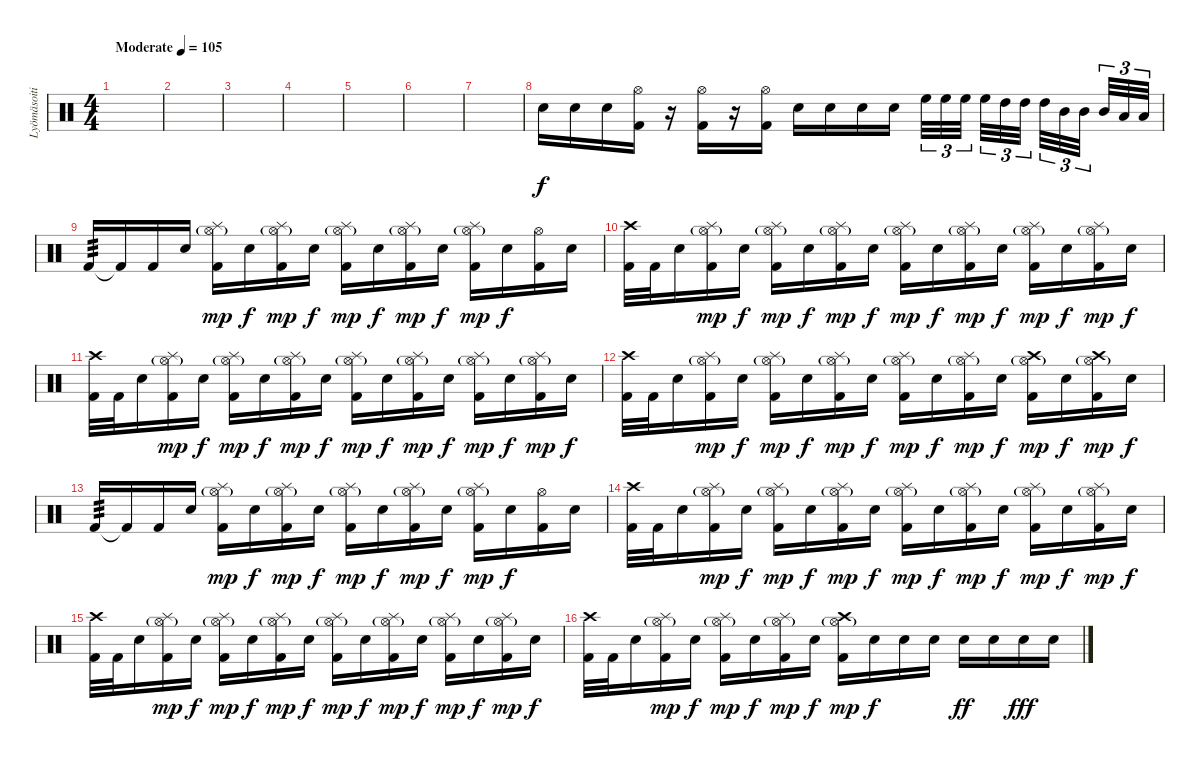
\track ("Lyömäsoitin" "Lyömäsoiti") {instrument percussion}
\staff {score}
\articulation defaults
\ts (4 4)
\tempo (105 "Moderate")
\clef neutral
\ks c
|
|
|
|
|
|
|
"Electric Snare (hit)".16 "Electric Snare (hit)".16 "Electric Snare (hit)".16 ("Hi-Hat (open)" "Kick (hit) 2").16 r.16 ("Hi-Hat (open)" "Kick (hit) 2").16 r.16 ("Hi-Hat (open)" "Kick (hit) 2").16 "Electric Snare (hit)".16 "Electric Snare (hit)".16 "Electric Snare (hit)".16 "Electric Snare (hit)".16 "High Floor Tom (hit)".32{tu (3 2)} "High Floor Tom (hit)".32{tu (3 2)} "High Floor Tom (hit)".32{tu (3 2) beam splitsecondary} "High Floor Tom (hit)".32{tu (3 2)} "High Tom (hit)".32{tu (3 2)} "High Tom (hit)".32{tu (3 2) beam splitsecondary} "High Tom (hit)".32{tu (3 2)} "Mid Tom (hit)".32{tu (3 2)} "Mid Tom (hit)".32{tu (3 2) beam splitsecondary} "Mid Tom (hit)".32{tu (3 2)} "Low Tom (hit)".32{tu (3 2)} "Low Tom (hit)".32{tu (3 2)} |
"Kick (hit) 2".16{tp 3} "Kick (hit) 2"{t}.16 "Kick (hit) 2".16 "Electric Snare (hit)".16 ("Splash (hit)" "Hi-Hat (open)"{g} "Kick (hit) 2").16{dy mp} "Electric Snare (hit)".16{dy f} ("Splash (hit)" "Hi-Hat (open)"{g} "Kick (hit) 2").16{dy mp} "Electric Snare (hit)".16{dy f} ("Splash (hit)" "Hi-Hat (open)"{g} "Kick (hit) 2").16{dy mp} "Electric Snare (hit)".16{dy f} ("Splash (hit)" "Hi-Hat (open)"{g} "Kick (hit) 2").16{dy mp} "Electric Snare (hit)".16{dy f} ("Splash (hit)" "Hi-Hat (open)"{g} "Kick (hit) 2").16{dy mp} "Electric Snare (hit)".16{dy f} ("Hi-Hat (open)" "Kick (hit) 2").16 "Electric Snare (hit)".16 |
("Crash high (hit)" "Kick (hit) 2").32 "Kick (hit) 2".32 "Electric Snare (hit)".16 ("Splash (hit)" "Hi-Hat (open)"{g} "Kick (hit) 2").16{dy mp} "Electric Snare (hit)".16{dy f} ("Splash (hit)" "Hi-Hat (open)"{g} "Kick (hit) 2").16{dy mp} "Electric Snare (hit)".16{dy f} ("Splash (hit)" "Hi-Hat (open)"{g} "Kick (hit) 2").16{dy mp} "Electric Snare (hit)".16{dy f} ("Splash (hit)" "Hi-Hat (open)"{g} "Kick (hit) 2").16{dy mp} "Electric Snare (hit)".16{dy f} ("Splash (hit)" "Hi-Hat (open)"{g} "Kick (hit) 2").16{dy mp} "Electric Snare (hit)".16{dy f} ("Splash (hit)" "Hi-Hat (open)"{g} "Kick (hit) 2").16{dy mp} "Electric Snare (hit)".16{dy f} ("Splash (hit)" "Hi-Hat (open)"{g} "Kick (hit) 2").16{dy mp} "Electric Snare (hit)".16{dy f} |
("Crash high (hit)" "Kick (hit) 2").32 "Kick (hit) 2".32 "Electric Snare (hit)".16 ("Splash (hit)" "Hi-Hat (open)"{g} "Kick (hit) 2").16{dy mp} "Electric Snare (hit)".16{dy f} ("Splash (hit)" "Hi-Hat (open)"{g} "Kick (hit) 2").16{dy mp} "Electric Snare (hit)".16{dy f} ("Splash (hit)" "Hi-Hat (open)"{g} "Kick (hit) 2").16{dy mp} "Electric Snare (hit)".16{dy f} ("Splash (hit)" "Hi-Hat (open)"{g} "Kick (hit) 2").16{dy mp} "Electric Snare (hit)".16{dy f} ("Splash (hit)" "Hi-Hat (open)"{g} "Kick (hit) 2").16{dy mp} "Electric Snare (hit)".16{dy f} ("Splash (hit)" "Hi-Hat (open)"{g} "Kick (hit) 2").16{dy mp} "Electric Snare (hit)".16{dy f} ("Splash (hit)" "Hi-Hat (open)"{g} "Kick (hit) 2").16{dy mp} "Electric Snare (hit)".16{dy f} |
("Crash high (hit)" "Kick (hit) 2").32 "Kick (hit) 2".32 "Electric Snare (hit)".16 ("Splash (hit)" "Hi-Hat (open)"{g} "Kick (hit) 2").16{dy mp} "Electric Snare (hit)".16{dy f} ("Splash (hit)" "Hi-Hat (open)"{g} "Kick (hit) 2").16{dy mp} "Electric Snare (hit)".16{dy f} ("Splash (hit)" "Hi-Hat (open)"{g} "Kick (hit) 2").16{dy mp} "Electric Snare (hit)".16{dy f} ("Splash (hit)" "Hi-Hat (open)"{g} "Kick (hit) 2").16{dy mp} "Electric Snare (hit)".16{dy f} ("Splash (hit)" "Hi-Hat (open)"{g} "Kick (hit) 2").16{dy mp} "Electric Snare (hit)".16{dy f} ("Crash high (hit)" "Hi-Hat (open)"{g} "Kick (hit) 2").16{dy mp} "Electric Snare (hit)".16{dy f} ("Crash high (hit)" "Hi-Hat (open)"{g} "Kick (hit) 2").16{dy mp} "Electric Snare (hit)".16{dy f} |
"Kick (hit) 2".16{tp 3} "Kick (hit) 2"{t}.16 "Kick (hit) 2".16 "Electric Snare (hit)".16 ("Splash (hit)" "Hi-Hat (open)"{g} "Kick (hit) 2").16{dy mp} "Electric Snare (hit)".16{dy f} ("Splash (hit)" "Hi-Hat (open)"{g} "Kick (hit) 2").16{dy mp} "Electric Snare (hit)".16{dy f} ("Splash (hit)" "Hi-Hat (open)"{g} "Kick (hit) 2").16{dy mp} "Electric Snare (hit)".16{dy f} ("Splash (hit)" "Hi-Hat (open)"{g} "Kick (hit) 2").16{dy mp} "Electric Snare (hit)".16{dy f} ("Splash (hit)" "Hi-Hat (open)"{g} "Kick (hit) 2").16{dy mp} "Electric Snare (hit)".16{dy f} ("Hi-Hat (open)" "Kick (hit) 2").16 "Electric Snare (hit)".16 |
("Crash high (hit)" "Kick (hit) 2").32 "Kick (hit) 2".32 "Electric Snare (hit)".16 ("Splash (hit)" "Hi-Hat (open)"{g} "Kick (hit) 2").16{dy mp} "Electric Snare (hit)".16{dy f} ("Splash (hit)" "Hi-Hat (open)"{g} "Kick (hit) 2").16{dy mp} "Electric Snare (hit)".16{dy f} ("Splash (hit)" "Hi-Hat (open)"{g} "Kick (hit) 2").16{dy mp} "Electric Snare (hit)".16{dy f} ("Splash (hit)" "Hi-Hat (open)"{g} "Kick (hit) 2").16{dy mp} "Electric Snare (hit)".16{dy f} ("Splash (hit)" "Hi-Hat (open)"{g} "Kick (hit) 2").16{dy mp} "Electric Snare (hit)".16{dy f} ("Splash (hit)" "Hi-Hat (open)"{g} "Kick (hit) 2").16{dy mp} "Electric Snare (hit)".16{dy f} ("Splash (hit)" "Hi-Hat (open)"{g} "Kick (hit) 2").16{dy mp} "Electric Snare (hit)".16{dy f} |
("Crash high (hit)" "Kick (hit) 2").32 "Kick (hit) 2".32 "Electric Snare (hit)".16 ("Splash (hit)" "Hi-Hat (open)"{g} "Kick (hit) 2").16{dy mp} "Electric Snare (hit)".16{dy f} ("Splash (hit)" "Hi-Hat (open)"{g} "Kick (hit) 2").16{dy mp} "Electric Snare (hit)".16{dy f} ("Splash (hit)" "Hi-Hat (open)"{g} "Kick (hit) 2").16{dy mp} "Electric Snare (hit)".16{dy f} ("Splash (hit)" "Hi-Hat (open)"{g} "Kick (hit) 2").16{dy mp} "Electric Snare (hit)".16{dy f} ("Splash (hit)" "Hi-Hat (open)"{g} "Kick (hit) 2").16{dy mp} "Electric Snare (hit)".16{dy f} ("Splash (hit)" "Hi-Hat (open)"{g} "Kick (hit) 2").16{dy mp} "Electric Snare (hit)".16{dy f} ("Splash (hit)" "Hi-Hat (open)"{g} "Kick (hit) 2").16{dy mp} "Electric Snare (hit)".16{dy f} |
("Crash high (hit)" "Kick (hit) 2").32 "Kick (hit) 2".32 "Electric Snare (hit)".16 ("Splash (hit)" "Hi-Hat (open)"{g} "Kick (hit) 2").16{dy mp} "Electric Snare (hit)".16{dy f} ("Splash (hit)" "Hi-Hat (open)"{g} "Kick (hit) 2").16{dy mp} "Electric Snare (hit)".16{dy f} ("Splash (hit)" "Hi-Hat (open)"{g} "Kick (hit) 2").16{dy mp} "Electric Snare (hit)".16{dy f} ("Crash high (hit)" "Hi-Hat (open)"{g} "Kick (hit) 2").16{dy mp} "Electric Snare (hit)".16{dy f} "Electric Snare (hit)".16 "Electric Snare (hit)".16 "Electric Snare (hit)".16{dy ff} "Electric Snare (hit)".16 "Electric Snare (hit)".16{dy fff} "Electric Snare (hit)".16
